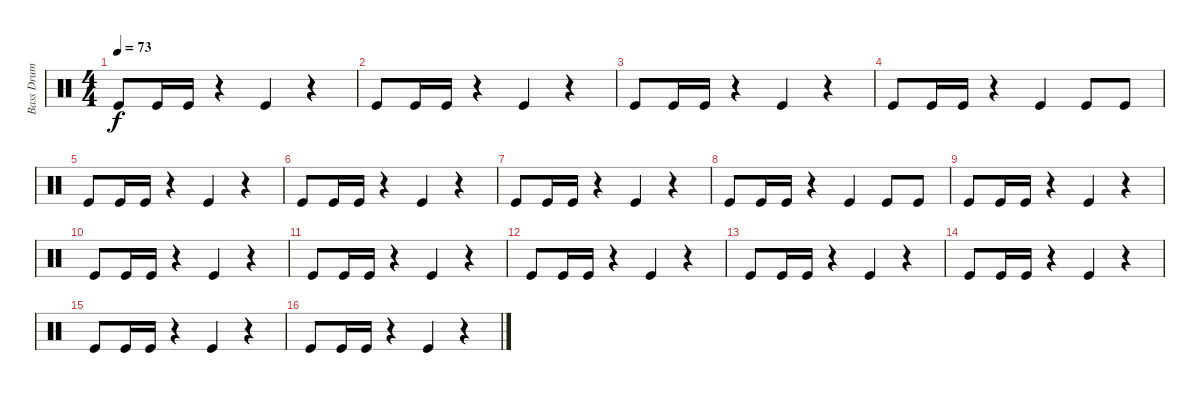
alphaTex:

\track ("Bass Drum" "Bass Drum") {instrument percussion}
\staff {score}
\articulation defaults
\ts (4 4)
\tempo 73
\clef neutral
\ks c "Kick (hit)".8{dy f} "Kick (hit)".16 "Kick (hit)".16
r.4 "Kick (hit)".4 r.4 |
"Kick (hit)".8 "Kick (hit)".16 "Kick (hit)".16 r.4 "Kick (hit)".4 r.4 |
"Kick (hit)".8 "Kick (hit)".16 "Kick (hit)".16 r.4 "Kick (hit)".4 r.4 |
"Kick (hit)".8 "Kick (hit)".16 "Kick (hit)".16 r.4 "Kick (hit)".4 "Kick (hit)".8 "Kick (hit)".8 |
"Kick (hit)".8 "Kick (hit)".16 "Kick (hit)".16 r.4 "Kick (hit)".4 r.4 |
"Kick (hit)".8 "Kick (hit)".16 "Kick (hit)".16 r.4 "Kick (hit)".4 r.4 |
"Kick (hit)".8 "Kick (hit)".16 "Kick (hit)".16 r.4 "Kick (hit)".4 r.4 |
"Kick (hit)".8 "Kick (hit)".16 "Kick (hit)".16 r.4 "Kick (hit)".4 "Kick (hit)".8 "Kick (hit)".8 |
"Kick (hit)".8 "Kick (hit)".16 "Kick (hit)".16 r.4 "Kick (hit)".4 r.4 |
"Kick (hit)".8 "Kick (hit)".16 "Kick (hit)".16 r.4 "Kick (hit)".4 r.4 |
"Kick (hit)".8 "Kick (hit)".16 "Kick (hit)".16 r.4 "Kick (hit)".4 r.4 |
"Kick (hit)".8 "Kick (hit)".16 "Kick (hit)".16 r.4 "Kick (hit)".4 r.4 |
"Kick (hit)".8 "Kick (hit)".16 "Kick (hit)".16 r.4 "Kick (hit)".4 r.4 |
"Kick (hit)".8 "Kick (hit)".16 "Kick (hit)".16 r.4 "Kick (hit)".4 r.4 |
"Kick (hit)".8 "Kick (hit)".16 "Kick (hit)".16 r.4 "Kick (hit)".4 r.4 |
"Kick (hit)".8 "Kick (hit)".16 "Kick (hit)".16 r.4 "Kick (hit)".4 r.4
